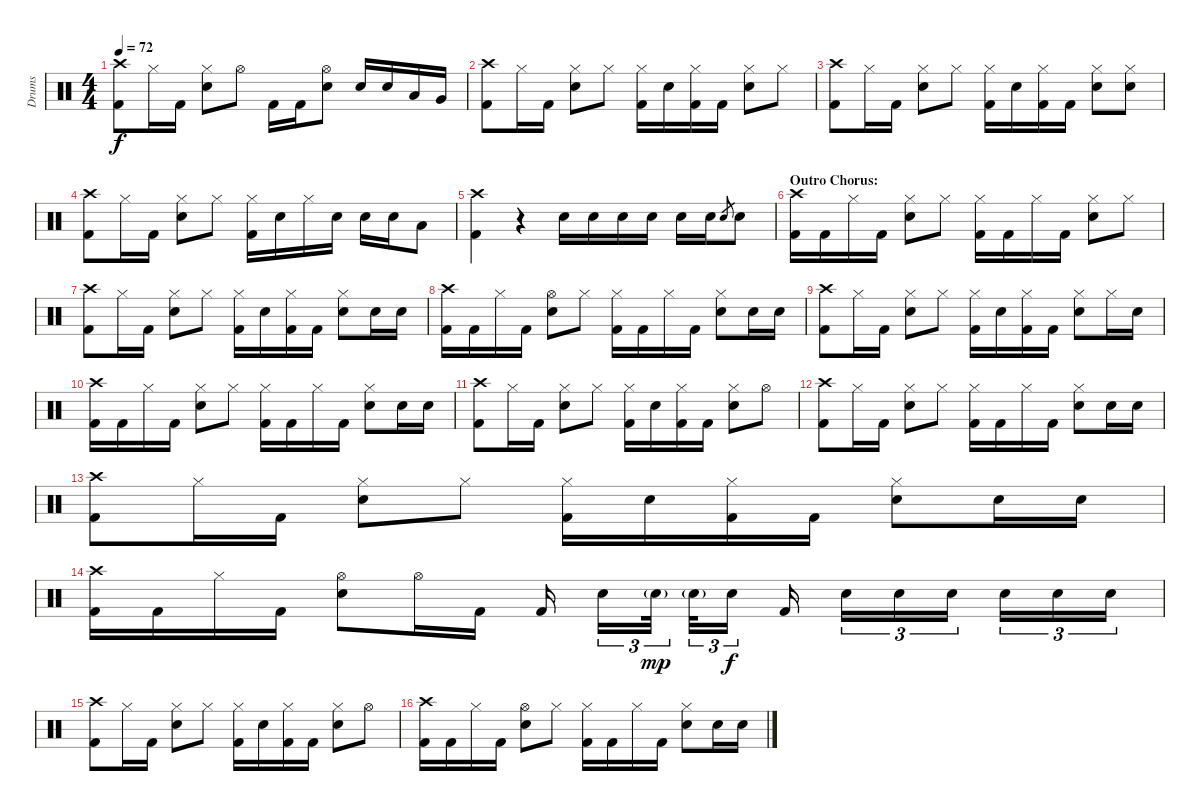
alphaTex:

\track ("Drums" "Drums") {instrument percussion}
\staff {score}
\articulation defaults
\ts (4 4)
\tempo 72
\clef neutral
\ks c
("Crash high (hit)" "Kick (hit) 2").8{dy f} "Hi-Hat (closed)".16 "Kick (hit) 2".16 ("Hi-Hat (closed)" "Electric Snare (hit)").8 "Hi-Hat (open)".8 "Kick (hit) 2".16 "Kick (hit) 2".16 ("Hi-Hat (open)" "Electric Snare (hit)").8 "Electric Snare (hit)".16 "Electric Snare (hit)".16 "Low Tom (hit)".16 "Very Low Tom (hit)".16 |
("Crash high (hit)" "Kick (hit) 2").8 "Hi-Hat (closed)".16 "Kick (hit) 2".16 ("Hi-Hat (closed)" "Electric Snare (hit)").8 "Hi-Hat (closed)".8 ("Hi-Hat (closed)" "Kick (hit) 2").16 "Electric Snare (hit)".16 ("Hi-Hat (closed)" "Kick (hit) 2").16 "Kick (hit) 2".16 ("Hi-Hat (closed)" "Electric Snare (hit)").8 "Hi-Hat (closed)".8 |
("Crash high (hit)" "Kick (hit) 2").8 "Hi-Hat (closed)".16 "Kick (hit) 2".16 ("Hi-Hat (closed)" "Electric Snare (hit)").8 "Hi-Hat (closed)".8 ("Hi-Hat (closed)" "Kick (hit) 2").16 "Electric Snare (hit)".16 ("Hi-Hat (closed)" "Kick (hit) 2").16 "Kick (hit) 2".16 ("Hi-Hat (closed)" "Electric Snare (hit)").8 ("Hi-Hat (closed)" "Electric Snare (hit)").8 |
("Crash high (hit)" "Kick (hit) 2").8 "Hi-Hat (closed)".16 "Kick (hit) 2".16 ("Hi-Hat (closed)" "Electric Snare (hit)").8 "Hi-Hat (closed)".8 ("Hi-Hat (closed)" "Kick (hit) 2").16 "Electric Snare (hit)".16 "Hi-Hat (closed)".16 "Electric Snare (hit)".16 "Electric Snare (hit)".16 "Electric Snare (hit)".16 "Low Tom (hit)".8 |
("Crash high (hit)" "Kick (hit) 2").4 r.4 "Electric Snare (hit)".16 "Electric Snare (hit)".16 "Electric Snare (hit)".16 "Electric Snare (hit)".16 "Electric Snare (hit)".16 "Electric Snare (hit)".16 "Electric Snare (hit)".8{gr} "Electric Snare (hit)".8 |
\section ("" "Outro Chorus:")
("Crash high (hit)" "Kick (hit) 2").16 "Kick (hit) 2".16 "Hi-Hat (closed)".16 "Kick (hit) 2".16 ("Hi-Hat (closed)" "Electric Snare (hit)").8 "Hi-Hat (closed)".8 ("Hi-Hat (closed)" "Kick (hit) 2").16 "Kick (hit) 2".16 "Hi-Hat (closed)".16 "Kick (hit) 2".16 ("Hi-Hat (closed)" "Electric Snare (hit)").8 "Hi-Hat (closed)".8 |
("Crash high (hit)" "Kick (hit) 2").8 "Hi-Hat (closed)".16 "Kick (hit) 2".16 ("Hi-Hat (closed)" "Electric Snare (hit)").8 "Hi-Hat (closed)".8 ("Hi-Hat (closed)" "Kick (hit) 2").16 "Electric Snare (hit)".16 ("Hi-Hat (closed)" "Kick (hit) 2").16 "Kick (hit) 2".16 ("Hi-Hat (closed)" "Electric Snare (hit)").8 "Electric Snare (hit)".16 "Electric Snare (hit)".16 |
("Crash high (hit)" "Kick (hit) 2").16 "Kick (hit) 2".16 "Hi-Hat (closed)".16 "Kick (hit) 2".16 ("Hi-Hat (open)" "Electric Snare (hit)").8 "Hi-Hat (closed)".8 ("Hi-Hat (closed)" "Kick (hit) 2").16 "Kick (hit) 2".16 "Hi-Hat (closed)".16 "Kick (hit) 2".16 ("Hi-Hat (closed)" "Electric Snare (hit)").8 "Electric Snare (hit)".16 "Electric Snare (hit)".16 |
("Crash high (hit)" "Kick (hit) 2").8 "Hi-Hat (closed)".16 "Kick (hit) 2".16 ("Hi-Hat (closed)" "Electric Snare (hit)").8 "Hi-Hat (closed)".8 ("Hi-Hat (closed)" "Kick (hit) 2").16 "Electric Snare (hit)".16 ("Hi-Hat (closed)" "Kick (hit) 2").16 "Kick (hit) 2".16 ("Hi-Hat (closed)" "Electric Snare (hit)").8 "Hi-Hat (closed)".16 "Electric Snare (hit)".16 |
("Crash high (hit)" "Kick (hit) 2").16 "Kick (hit) 2".16 "Hi-Hat (closed)".16 "Kick (hit) 2".16 ("Hi-Hat (closed)" "Electric Snare (hit)").8 "Hi-Hat (closed)".8 ("Hi-Hat (closed)" "Kick (hit) 2").16 "Kick (hit) 2".16 "Hi-Hat (closed)".16 "Kick (hit) 2".16 ("Hi-Hat (closed)" "Electric Snare (hit)").8 "Electric Snare (hit)".16 "Electric Snare (hit)".16 |
("Crash high (hit)" "Kick (hit) 2").8 "Hi-Hat (closed)".16 "Kick (hit) 2".16 ("Hi-Hat (closed)" "Electric Snare (hit)").8 "Hi-Hat (closed)".8 ("Hi-Hat (closed)" "Kick (hit) 2").16 "Electric Snare (hit)".16 ("Hi-Hat (closed)" "Kick (hit) 2").16 "Kick (hit) 2".16 ("Hi-Hat (closed)" "Electric Snare (hit)").8 "Hi-Hat (open)".8 |
("Crash high (hit)" "Kick (hit) 2").8 "Hi-Hat (closed)".16 "Kick (hit) 2".16 ("Hi-Hat (closed)" "Electric Snare (hit)").8 "Hi-Hat (closed)".8 ("Hi-Hat (closed)" "Kick (hit) 2").16 "Kick (hit) 2".16 "Hi-Hat (closed)".16 "Kick (hit) 2".16 ("Hi-Hat (closed)" "Electric Snare (hit)").8 "Electric Snare (hit)".16 "Electric Snare (hit)".16 |
("Crash high (hit)" "Kick (hit) 2").8 "Hi-Hat (closed)".16 "Kick (hit) 2".16 ("Hi-Hat (closed)" "Electric Snare (hit)").8 "Hi-Hat (closed)".8 ("Hi-Hat (closed)" "Kick (hit) 2").16 "Electric Snare (hit)".16 ("Hi-Hat (closed)" "Kick (hit) 2").16 "Kick (hit) 2".16 ("Hi-Hat (closed)" "Electric Snare (hit)").8 "Electric Snare (hit)".16 "Electric Snare (hit)".16 |
("Crash high (hit)" "Kick (hit) 2").16 "Kick (hit) 2".16 "Hi-Hat (closed)".16 "Kick (hit) 2".16 ("Hi-Hat (open)" "Electric Snare (hit)").8 "Hi-Hat (open)".16 "Kick (hit) 2".16 "Kick (hit) 2".16 "Electric Snare (hit)".16{tu (3 2)} "Electric Snare (hit)"{g}.32{tu (3 2) dy mp} "Electric Snare (hit)"{g}.32{tu (3 2)} "Electric Snare (hit)".16{tu (3 2) dy f} "Kick (hit) 2".16 "Electric Snare (hit)".16{tu (3 2)} "Electric Snare (hit)".16{tu (3 2)} "Electric Snare (hit)".16{tu (3 2)} "Electric Snare (hit)".16{tu (3 2)} "Electric Snare (hit)".16{tu (3 2)} "Electric Snare (hit)".16{tu (3 2)} |
("Crash high (hit)" "Kick (hit) 2").8 "Hi-Hat (closed)".16 "Kick (hit) 2".16 ("Hi-Hat (closed)" "Electric Snare (hit)").8 "Hi-Hat (closed)".8 ("Hi-Hat (closed)" "Kick (hit) 2").16 "Electric Snare (hit)".16 ("Hi-Hat (closed)" "Kick (hit) 2").16 "Kick (hit) 2".16 ("Hi-Hat (closed)" "Electric Snare (hit)").8 "Hi-Hat (open)".8 |
("Crash high (hit)" "Kick (hit) 2").16 "Kick (hit) 2".16 "Hi-Hat (closed)".16 "Kick (hit) 2".16 ("Hi-Hat (open)" "Electric Snare (hit)").8 "Hi-Hat (closed)".8 ("Hi-Hat (closed)" "Kick (hit) 2").16 "Kick (hit) 2".16 "Hi-Hat (closed)".16 "Kick (hit) 2".16 ("Hi-Hat (closed)" "Electric Snare (hit)").8 "Electric Snare (hit)".16 "Electric Snare (hit)".16
